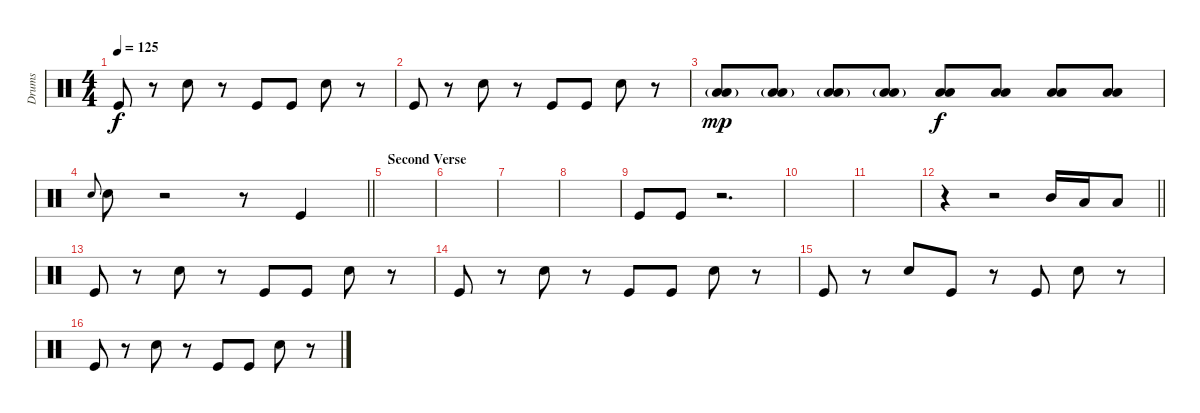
\track ("Drums" "Drums") {instrument percussion}
\staff {score}
\articulation defaults
\ts (4 4)
\tempo 125
\clef neutral
\ks c "Kick (hit)".8{dy f}
r.8 "Snare (hit) 2".8 r.8 "Kick (hit)".8 "Kick (hit)".8 "Snare (hit) 2".8 r.8 |
"Kick (hit)".8 r.8 "Snare (hit) 2".8 r.8 "Kick (hit)".8 "Kick (hit)".8 "Snare (hit) 2".8 r.8 |
("Low Floor Tom (hit)"{g} "Low Tom (hit)"{g}).8{dy mp} ("Low Floor Tom (hit)"{g} "Low Tom (hit)"{g}).8 ("Low Floor Tom (hit)"{g} "Low Tom (hit)"{g}).8 ("Low Floor Tom (hit)"{g} "Low Tom (hit)"{g}).8 ("Low Floor Tom (hit)" "Low Tom (hit)").8{dy f} ("Low Floor Tom (hit)" "Low Tom (hit)").8 ("Low Floor Tom (hit)" "Low Tom (hit)").8 ("Low Floor Tom (hit)" "Low Tom (hit)").8 |
\barLineRight lightlight "Snare (hit) 2".8{gr onbeat} "Snare (hit) 2".8
r.2 r.8 "Kick (hit)".4 |
\section ("" "Second Verse")
|
|
|
|
"Kick (hit)".8 "Kick (hit)".8 r.2{d} |
|
|
\barLineRight lightlight
r.4 r.2 "Mid Tom (hit)".16 "Low Tom (hit)".16 "Low Floor Tom (hit)".8 |
"Kick (hit)".8 r.8 "Snare (hit) 2".8 r.8 "Kick (hit)".8 "Kick (hit)".8 "Snare (hit) 2".8 r.8 |
"Kick (hit)".8 r.8 "Snare (hit) 2".8 r.8 "Kick (hit)".8 "Kick (hit)".8 "Snare (hit) 2".8 r.8 |
"Kick (hit)".8 r.8 "Snare (hit) 2".8 "Kick (hit)".8 r.8 "Kick (hit)".8 "Snare (hit) 2".8 r.8 |
"Kick (hit)".8 r.8 "Snare (hit) 2".8 r.8 "Kick (hit)".8 "Kick (hit)".8 "Snare (hit) 2".8 r.8
